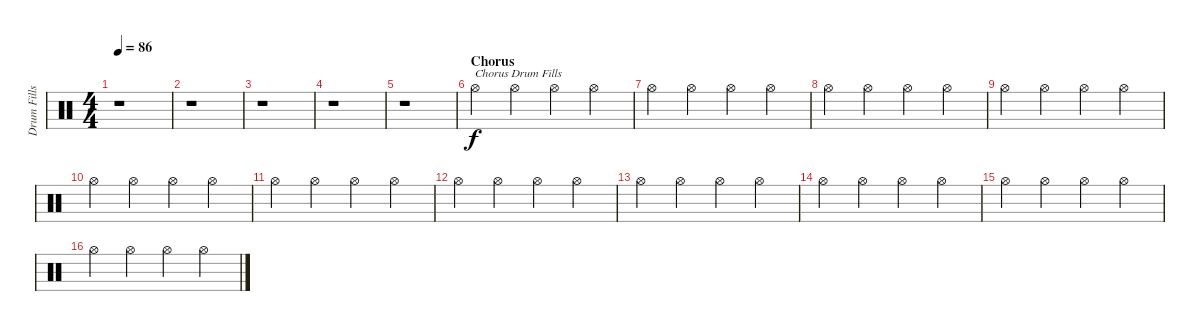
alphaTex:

\track ("Drum Fills" "Drum Fills") {instrument percussion}
\staff {score}
\articulation defaults
\ts (4 4)
\tempo 86
\clef neutral
\ks c
r.1{dy f} |
r.1 |
r.1 |
r.1 |
r.1 |
\section ("" "Chorus")
"Hi-Hat (open)".4{txt "Chorus Drum Fills"} "Hi-Hat (open)".4 "Hi-Hat (open)".4 "Hi-Hat (open)".4 |
"Hi-Hat (open)".4 "Hi-Hat (open)".4 "Hi-Hat (open)".4 "Hi-Hat (open)".4 |
"Hi-Hat (open)".4 "Hi-Hat (open)".4 "Hi-Hat (open)".4 "Hi-Hat (open)".4 |
"Hi-Hat (open)".4 "Hi-Hat (open)".4 "Hi-Hat (open)".4 "Hi-Hat (open)".4 |
"Hi-Hat (open)".4 "Hi-Hat (open)".4 "Hi-Hat (open)".4 "Hi-Hat (open)".4 |
"Hi-Hat (open)".4 "Hi-Hat (open)".4 "Hi-Hat (open)".4 "Hi-Hat (open)".4 |
"Hi-Hat (open)".4 "Hi-Hat (open)".4 "Hi-Hat (open)".4 "Hi-Hat (open)".4 |
"Hi-Hat (open)".4 "Hi-Hat (open)".4 "Hi-Hat (open)".4 "Hi-Hat (open)".4 |
"Hi-Hat (open)".4 "Hi-Hat (open)".4 "Hi-Hat (open)".4 "Hi-Hat (open)".4 |
"Hi-Hat (open)".4 "Hi-Hat (open)".4 "Hi-Hat (open)".4 "Hi-Hat (open)".4 |
"Hi-Hat (open)".4 "Hi-Hat (open)".4 "Hi-Hat (open)".4 "Hi-Hat (open)".4
